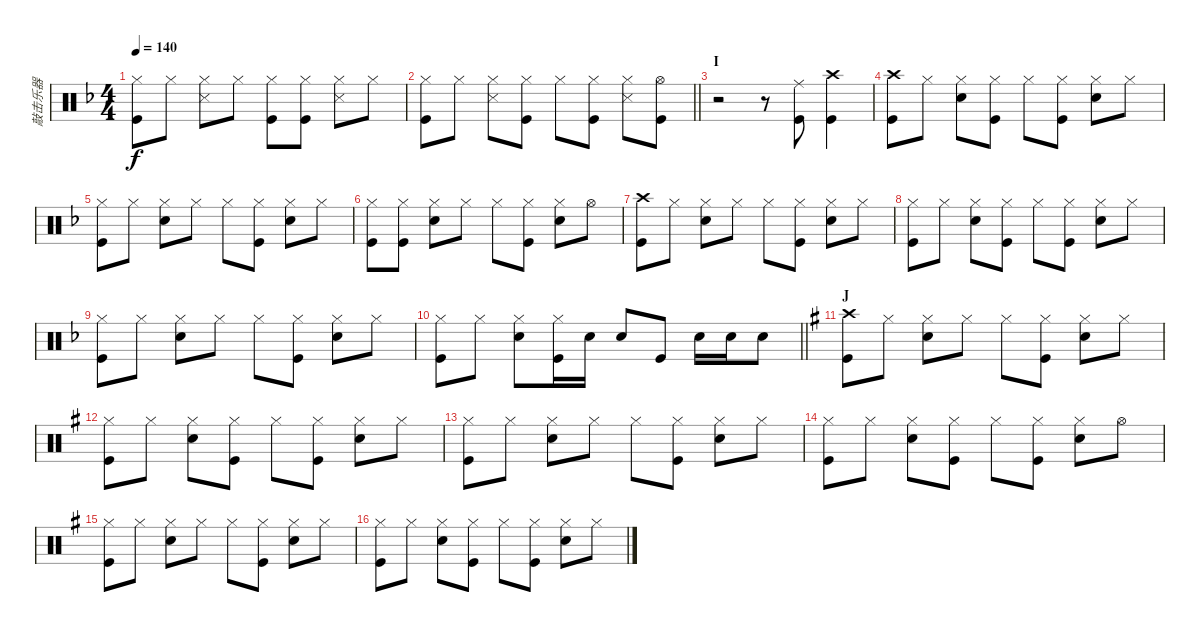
\track ("敲击乐器" "敲击乐器") {instrument percussion}
\staff {score}
\articulation defaults
\ts (4 4)
\tempo 140
\clef neutral
\ks f
("Hi-Hat (closed)" "Kick (hit)").8{dy f} "Hi-Hat (closed)".8 ("Hi-Hat (closed)" "Snare (side stick) 3").8 "Hi-Hat (closed)".8 ("Hi-Hat (closed)" "Kick (hit)").8 ("Hi-Hat (closed)" "Kick (hit)").8 ("Hi-Hat (closed)" "Snare (side stick) 3").8 "Hi-Hat (closed)".8 |
\barLineRight lightlight
("Hi-Hat (closed)" "Kick (hit)").8 "Hi-Hat (closed)".8 ("Hi-Hat (closed)" "Snare (side stick) 3").8 ("Hi-Hat (closed)" "Kick (hit)").8 "Hi-Hat (closed)".8 ("Hi-Hat (closed)" "Kick (hit)").8 ("Hi-Hat (closed)" "Snare (side stick) 3").8 ("Hi-Hat (open)" "Kick (hit)").8 |
\section ("" "I")
r.2 r.8 ("Kick (hit)" "Ride (middle)").8 ("Kick (hit)" "Crash high (hit)").4 |
("Crash high (hit)" "Kick (hit)").8 "Hi-Hat (closed)".8 ("Hi-Hat (closed)" "Snare (hit) 2").8 ("Hi-Hat (closed)" "Kick (hit)").8 "Hi-Hat (closed)".8 ("Hi-Hat (closed)" "Kick (hit)").8 ("Hi-Hat (closed)" "Snare (hit) 2").8 "Hi-Hat (closed)".8 |
("Hi-Hat (closed)" "Kick (hit)").8 "Hi-Hat (closed)".8 ("Hi-Hat (closed)" "Snare (hit) 2").8 "Hi-Hat (closed)".8 "Hi-Hat (closed)".8 ("Hi-Hat (closed)" "Kick (hit)").8 ("Hi-Hat (closed)" "Snare (hit) 2").8 "Hi-Hat (closed)".8 |
("Hi-Hat (closed)" "Kick (hit)").8 ("Hi-Hat (closed)" "Kick (hit)").8 ("Hi-Hat (closed)" "Snare (hit) 2").8 "Hi-Hat (closed)".8 "Hi-Hat (closed)".8 ("Hi-Hat (closed)" "Kick (hit)").8 ("Hi-Hat (closed)" "Snare (hit) 2").8 "Hi-Hat (open)".8 |
("Crash high (hit)" "Kick (hit)").8 "Hi-Hat (closed)".8 ("Hi-Hat (closed)" "Snare (hit) 2").8 "Hi-Hat (closed)".8 "Hi-Hat (closed)".8 ("Hi-Hat (closed)" "Kick (hit)").8 ("Hi-Hat (closed)" "Snare (hit) 2").8 "Hi-Hat (closed)".8 |
("Hi-Hat (closed)" "Kick (hit)").8 "Hi-Hat (closed)".8 ("Hi-Hat (closed)" "Snare (hit) 2").8 ("Hi-Hat (closed)" "Kick (hit)").8 "Hi-Hat (closed)".8 ("Hi-Hat (closed)" "Kick (hit)").8 ("Hi-Hat (closed)" "Snare (hit) 2").8 "Hi-Hat (closed)".8 |
("Hi-Hat (closed)" "Kick (hit)").8 "Hi-Hat (closed)".8 ("Hi-Hat (closed)" "Snare (hit) 2").8 "Hi-Hat (closed)".8 "Hi-Hat (closed)".8 ("Hi-Hat (closed)" "Kick (hit)").8 ("Hi-Hat (closed)" "Snare (hit) 2").8 "Hi-Hat (closed)".8 |
\barLineRight lightlight
("Hi-Hat (closed)" "Kick (hit)").8 "Hi-Hat (closed)".8 ("Hi-Hat (closed)" "Snare (hit) 2").8 ("Hi-Hat (closed)" "Kick (hit)").16 "Snare (hit) 2".16 "Snare (hit) 2".8 "Kick (hit)".8 "Snare (hit) 2".16 "Snare (hit) 2".16 "Snare (hit) 2".8 |
\section ("" "J")
\ks g
("Crash high (hit)" "Kick (hit)").8 "Hi-Hat (closed)".8 ("Hi-Hat (closed)" "Snare (hit) 2").8 "Hi-Hat (closed)".8 "Hi-Hat (closed)".8 ("Hi-Hat (closed)" "Kick (hit)").8 ("Hi-Hat (closed)" "Snare (hit) 2").8 "Hi-Hat (closed)".8 |
("Hi-Hat (closed)" "Kick (hit)").8 "Hi-Hat (closed)".8 ("Hi-Hat (closed)" "Snare (hit) 2").8 ("Hi-Hat (closed)" "Kick (hit)").8 "Hi-Hat (closed)".8 ("Hi-Hat (closed)" "Kick (hit)").8 ("Hi-Hat (closed)" "Snare (hit) 2").8 "Hi-Hat (closed)".8 |
("Hi-Hat (closed)" "Kick (hit)").8 "Hi-Hat (closed)".8 ("Hi-Hat (closed)" "Snare (hit) 2").8 "Hi-Hat (closed)".8 "Hi-Hat (closed)".8 ("Hi-Hat (closed)" "Kick (hit)").8 ("Hi-Hat (closed)" "Snare (hit) 2").8 "Hi-Hat (closed)".8 |
("Hi-Hat (closed)" "Kick (hit)").8 "Hi-Hat (closed)".8 ("Hi-Hat (closed)" "Snare (hit) 2").8 ("Hi-Hat (closed)" "Kick (hit)").8 "Hi-Hat (closed)".8 ("Hi-Hat (closed)" "Kick (hit)").8 ("Hi-Hat (closed)" "Snare (hit) 2").8 "Hi-Hat (open)".8 |
("Hi-Hat (closed)" "Kick (hit)").8 "Hi-Hat (closed)".8 ("Hi-Hat (closed)" "Snare (hit) 2").8 "Hi-Hat (closed)".8 "Hi-Hat (closed)".8 ("Hi-Hat (closed)" "Kick (hit)").8 ("Hi-Hat (closed)" "Snare (hit) 2").8 "Hi-Hat (closed)".8 |
("Hi-Hat (closed)" "Kick (hit)").8 "Hi-Hat (closed)".8 ("Hi-Hat (closed)" "Snare (hit) 2").8 ("Hi-Hat (closed)" "Kick (hit)").8 "Hi-Hat (closed)".8 ("Hi-Hat (closed)" "Kick (hit)").8 ("Hi-Hat (closed)" "Snare (hit) 2").8 "Hi-Hat (closed)".8
